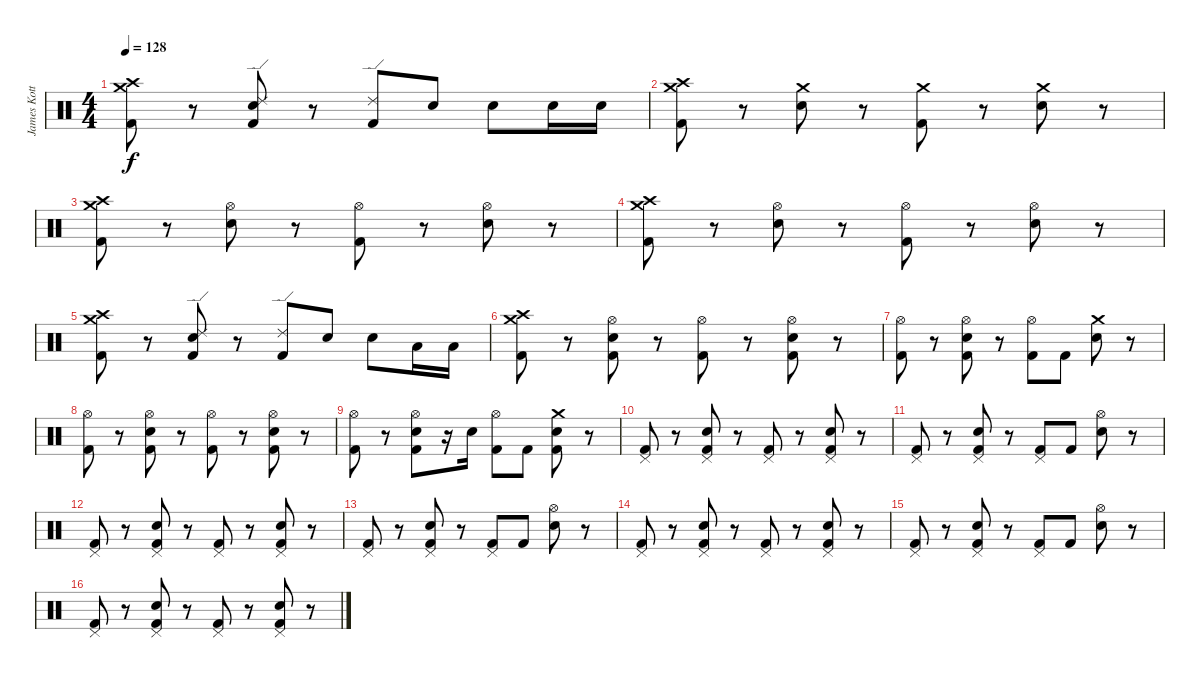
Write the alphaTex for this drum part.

\track ("James Kottak" "James Kott") {instrument percussion}
\staff {score}
\articulation defaults
\ts (4 4)
\tempo 128
\clef neutral
\ks c
("Crash high (hit)" "Crash medium (hit)" "Kick (hit) 2").8{dy f} r.8 ("Ride (edge) 2" "Electric Snare (hit)" "Kick (hit) 2").8 r.8 ("Ride (edge) 2" "Kick (hit) 2").8 "Electric Snare (hit)".8 "Electric Snare (hit)".8 "Electric Snare (hit)".16 "Electric Snare (hit)".16 |
("Crash high (hit)" "Crash medium (hit)" "Kick (hit) 2").8 r.8 ("Crash medium (hit)" "Electric Snare (hit)").8 r.8 ("Crash medium (hit)" "Kick (hit) 2").8 r.8 ("Crash medium (hit)" "Electric Snare (hit)").8 r.8 |
("Crash high (hit)" "Crash medium (hit)" "Kick (hit) 2").8 r.8 ("Hi-Hat (open)" "Electric Snare (hit)").8 r.8 ("Hi-Hat (open)" "Kick (hit) 2").8 r.8 ("Hi-Hat (open)" "Electric Snare (hit)").8 r.8 |
("Crash high (hit)" "Crash medium (hit)" "Kick (hit) 2").8 r.8 ("Hi-Hat (open)" "Electric Snare (hit)").8 r.8 ("Hi-Hat (open)" "Kick (hit) 2").8 r.8 ("Hi-Hat (open)" "Electric Snare (hit)").8 r.8 |
("Crash high (hit)" "Crash medium (hit)" "Kick (hit) 2").8 r.8 ("Ride (edge) 2" "Electric Snare (hit)" "Kick (hit) 2").8 r.8 ("Ride (edge) 2" "Kick (hit) 2").8 "Electric Snare (hit)".8 "Electric Snare (hit)".8 "Low Floor Tom (hit)".16 "Low Floor Tom (hit)".16 |
("Crash medium (hit)" "Crash high (hit)" "Kick (hit) 2").8 r.8 ("Hi-Hat (open)" "Electric Snare (hit)" "Kick (hit) 2").8 r.8 ("Hi-Hat (open)" "Kick (hit) 2").8 r.8 ("Hi-Hat (open)" "Electric Snare (hit)" "Kick (hit) 2").8 r.8 |
("Hi-Hat (open)" "Kick (hit) 2").8 r.8 ("Hi-Hat (open)" "Electric Snare (hit)" "Kick (hit) 2").8 r.8 ("Hi-Hat (open)" "Kick (hit) 2").8 "Kick (hit) 2".8 ("Crash medium (hit)" "Electric Snare (hit)").8 r.8 |
("Hi-Hat (open)" "Kick (hit) 2").8 r.8 ("Hi-Hat (open)" "Electric Snare (hit)" "Kick (hit) 2").8 r.8 ("Hi-Hat (open)" "Kick (hit) 2").8 r.8 ("Hi-Hat (open)" "Electric Snare (hit)" "Kick (hit) 2").8 r.8 |
("Hi-Hat (open)" "Kick (hit) 2").8 r.8 ("Hi-Hat (open)" "Electric Snare (hit)" "Kick (hit) 2").8 r.16 "Electric Snare (hit)".16 ("Hi-Hat (open)" "Kick (hit) 2").8 "Kick (hit) 2".8 ("Crash medium (hit)" "Electric Snare (hit)" "Kick (hit) 2").8 r.8 |
("Pedal Hi-Hat (hit)" "Kick (hit) 2").8 r.8 ("Pedal Hi-Hat (hit)" "Electric Snare (hit)" "Kick (hit) 2").8 r.8 ("Pedal Hi-Hat (hit)" "Kick (hit) 2").8 r.8 ("Pedal Hi-Hat (hit)" "Electric Snare (hit)" "Kick (hit) 2").8 r.8 |
("Pedal Hi-Hat (hit)" "Kick (hit) 2").8 r.8 ("Pedal Hi-Hat (hit)" "Electric Snare (hit)" "Kick (hit) 2").8 r.8 ("Pedal Hi-Hat (hit)" "Kick (hit) 2").8 "Kick (hit) 2".8 ("Hi-Hat (open)" "Electric Snare (hit)").8 r.8 |
("Pedal Hi-Hat (hit)" "Kick (hit) 2").8 r.8 ("Pedal Hi-Hat (hit)" "Electric Snare (hit)" "Kick (hit) 2").8 r.8 ("Pedal Hi-Hat (hit)" "Kick (hit) 2").8 r.8 ("Pedal Hi-Hat (hit)" "Electric Snare (hit)" "Kick (hit) 2").8 r.8 |
("Pedal Hi-Hat (hit)" "Kick (hit) 2").8 r.8 ("Pedal Hi-Hat (hit)" "Electric Snare (hit)" "Kick (hit) 2").8 r.8 ("Pedal Hi-Hat (hit)" "Kick (hit) 2").8 "Kick (hit) 2".8 ("Hi-Hat (open)" "Electric Snare (hit)").8 r.8 |
("Pedal Hi-Hat (hit)" "Kick (hit) 2").8 r.8 ("Pedal Hi-Hat (hit)" "Electric Snare (hit)" "Kick (hit) 2").8 r.8 ("Pedal Hi-Hat (hit)" "Kick (hit) 2").8 r.8 ("Pedal Hi-Hat (hit)" "Electric Snare (hit)" "Kick (hit) 2").8 r.8 |
("Pedal Hi-Hat (hit)" "Kick (hit) 2").8 r.8 ("Pedal Hi-Hat (hit)" "Electric Snare (hit)" "Kick (hit) 2").8 r.8 ("Pedal Hi-Hat (hit)" "Kick (hit) 2").8 "Kick (hit) 2".8 ("Hi-Hat (open)" "Electric Snare (hit)").8 r.8 |
("Pedal Hi-Hat (hit)" "Kick (hit) 2").8 r.8 ("Pedal Hi-Hat (hit)" "Electric Snare (hit)" "Kick (hit) 2").8 r.8 ("Pedal Hi-Hat (hit)" "Kick (hit) 2").8 r.8 ("Pedal Hi-Hat (hit)" "Electric Snare (hit)" "Kick (hit) 2").8 r.8
